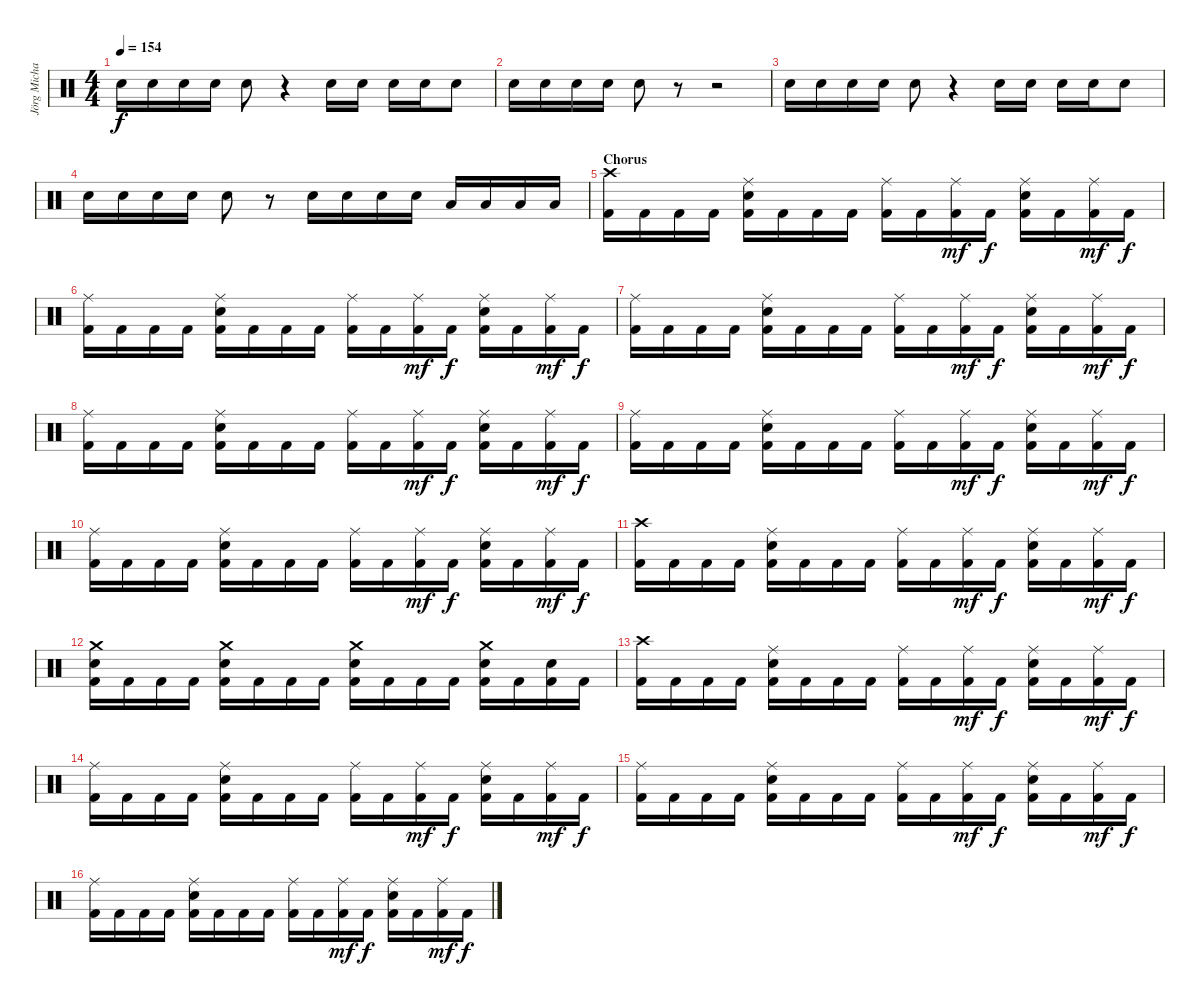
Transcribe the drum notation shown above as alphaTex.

\track ("Jörg Michael - Drums" "Jörg Micha") {instrument percussion}
\staff {score}
\articulation defaults
\ts (4 4)
\tempo 154
\clef neutral
\ks c "Electric Snare (hit)".16{dy f} "Electric Snare (hit)".16 "Electric Snare (hit)".16 "Electric Snare (hit)".16 "Electric Snare (hit)".8
r.4 "Electric Snare (hit)".16 "Electric Snare (hit)".16 "Electric Snare (hit)".16 "Electric Snare (hit)".16 "Electric Snare (hit)".8 |
"Electric Snare (hit)".16 "Electric Snare (hit)".16 "Electric Snare (hit)".16 "Electric Snare (hit)".16 "Electric Snare (hit)".8 r.8 r.2 |
"Electric Snare (hit)".16 "Electric Snare (hit)".16 "Electric Snare (hit)".16 "Electric Snare (hit)".16 "Electric Snare (hit)".8 r.4 "Electric Snare (hit)".16 "Electric Snare (hit)".16 "Electric Snare (hit)".16 "Electric Snare (hit)".16 "Electric Snare (hit)".8 |
"Electric Snare (hit)".16 "Electric Snare (hit)".16 "Electric Snare (hit)".16 "Electric Snare (hit)".16 "Electric Snare (hit)".8 r.8 "Electric Snare (hit)".16 "Electric Snare (hit)".16 "Electric Snare (hit)".16 "Electric Snare (hit)".16 "Low Tom (hit)".16 "Low Tom (hit)".16 "Low Tom (hit)".16 "Low Tom (hit)".16 |
\section ("" "Chorus")
("Crash high (hit)" "Kick (hit) 2").16 "Kick (hit) 2".16 "Kick (hit) 2".16 "Kick (hit) 2".16 ("Ride (middle)" "Electric Snare (hit)" "Kick (hit) 2").16 "Kick (hit) 2".16 "Kick (hit) 2".16 "Kick (hit) 2".16 ("Ride (middle)" "Kick (hit) 2").16 "Kick (hit) 2".16 ("Ride (middle)" "Kick (hit) 2").16{dy mf} "Kick (hit) 2".16{dy f} ("Ride (middle)" "Electric Snare (hit)" "Kick (hit) 2").16 "Kick (hit) 2".16 ("Ride (middle)" "Kick (hit) 2").16{dy mf} "Kick (hit) 2".16{dy f} |
("Ride (middle)" "Kick (hit) 2").16 "Kick (hit) 2".16 "Kick (hit) 2".16 "Kick (hit) 2".16 ("Ride (middle)" "Electric Snare (hit)" "Kick (hit) 2").16 "Kick (hit) 2".16 "Kick (hit) 2".16 "Kick (hit) 2".16 ("Ride (middle)" "Kick (hit) 2").16 "Kick (hit) 2".16 ("Ride (middle)" "Kick (hit) 2").16{dy mf} "Kick (hit) 2".16{dy f} ("Ride (middle)" "Electric Snare (hit)" "Kick (hit) 2").16 "Kick (hit) 2".16 ("Ride (middle)" "Kick (hit) 2").16{dy mf} "Kick (hit) 2".16{dy f} |
("Ride (middle)" "Kick (hit) 2").16 "Kick (hit) 2".16 "Kick (hit) 2".16 "Kick (hit) 2".16 ("Ride (middle)" "Electric Snare (hit)" "Kick (hit) 2").16 "Kick (hit) 2".16 "Kick (hit) 2".16 "Kick (hit) 2".16 ("Ride (middle)" "Kick (hit) 2").16 "Kick (hit) 2".16 ("Ride (middle)" "Kick (hit) 2").16{dy mf} "Kick (hit) 2".16{dy f} ("Ride (middle)" "Electric Snare (hit)" "Kick (hit) 2").16 "Kick (hit) 2".16 ("Ride (middle)" "Kick (hit) 2").16{dy mf} "Kick (hit) 2".16{dy f} |
("Ride (middle)" "Kick (hit) 2").16 "Kick (hit) 2".16 "Kick (hit) 2".16 "Kick (hit) 2".16 ("Ride (middle)" "Electric Snare (hit)" "Kick (hit) 2").16 "Kick (hit) 2".16 "Kick (hit) 2".16 "Kick (hit) 2".16 ("Ride (middle)" "Kick (hit) 2").16 "Kick (hit) 2".16 ("Ride (middle)" "Kick (hit) 2").16{dy mf} "Kick (hit) 2".16{dy f} ("Ride (middle)" "Electric Snare (hit)" "Kick (hit) 2").16 "Kick (hit) 2".16 ("Ride (middle)" "Kick (hit) 2").16{dy mf} "Kick (hit) 2".16{dy f} |
("Ride (middle)" "Kick (hit) 2").16 "Kick (hit) 2".16 "Kick (hit) 2".16 "Kick (hit) 2".16 ("Ride (middle)" "Electric Snare (hit)" "Kick (hit) 2").16 "Kick (hit) 2".16 "Kick (hit) 2".16 "Kick (hit) 2".16 ("Ride (middle)" "Kick (hit) 2").16 "Kick (hit) 2".16 ("Ride (middle)" "Kick (hit) 2").16{dy mf} "Kick (hit) 2".16{dy f} ("Ride (middle)" "Electric Snare (hit)" "Kick (hit) 2").16 "Kick (hit) 2".16 ("Ride (middle)" "Kick (hit) 2").16{dy mf} "Kick (hit) 2".16{dy f} |
("Ride (middle)" "Kick (hit) 2").16 "Kick (hit) 2".16 "Kick (hit) 2".16 "Kick (hit) 2".16 ("Ride (middle)" "Electric Snare (hit)" "Kick (hit) 2").16 "Kick (hit) 2".16 "Kick (hit) 2".16 "Kick (hit) 2".16 ("Ride (middle)" "Kick (hit) 2").16 "Kick (hit) 2".16 ("Ride (middle)" "Kick (hit) 2").16{dy mf} "Kick (hit) 2".16{dy f} ("Ride (middle)" "Electric Snare (hit)" "Kick (hit) 2").16 "Kick (hit) 2".16 ("Ride (middle)" "Kick (hit) 2").16{dy mf} "Kick (hit) 2".16{dy f} |
("Crash high (hit)" "Kick (hit) 2").16 "Kick (hit) 2".16 "Kick (hit) 2".16 "Kick (hit) 2".16 ("Ride (middle)" "Electric Snare (hit)" "Kick (hit) 2").16 "Kick (hit) 2".16 "Kick (hit) 2".16 "Kick (hit) 2".16 ("Ride (middle)" "Kick (hit) 2").16 "Kick (hit) 2".16 ("Ride (middle)" "Kick (hit) 2").16{dy mf} "Kick (hit) 2".16{dy f} ("Ride (middle)" "Electric Snare (hit)" "Kick (hit) 2").16 "Kick (hit) 2".16 ("Ride (middle)" "Kick (hit) 2").16{dy mf} "Kick (hit) 2".16{dy f} |
("Crash medium (hit)" "Electric Snare (hit)" "Kick (hit) 2").16 "Kick (hit) 2".16 "Kick (hit) 2".16 "Kick (hit) 2".16 ("Crash medium (hit)" "Electric Snare (hit)" "Kick (hit) 2").16 "Kick (hit) 2".16 "Kick (hit) 2".16 "Kick (hit) 2".16 ("Crash medium (hit)" "Electric Snare (hit)" "Kick (hit) 2").16 "Kick (hit) 2".16 "Kick (hit) 2".16 "Kick (hit) 2".16 ("Crash medium (hit)" "Electric Snare (hit)" "Kick (hit) 2").16 "Kick (hit) 2".16 ("Electric Snare (hit)" "Kick (hit) 2").16 "Kick (hit) 2".16 |
("Crash high (hit)" "Kick (hit) 2").16 "Kick (hit) 2".16 "Kick (hit) 2".16 "Kick (hit) 2".16 ("Ride (middle)" "Electric Snare (hit)" "Kick (hit) 2").16 "Kick (hit) 2".16 "Kick (hit) 2".16 "Kick (hit) 2".16 ("Ride (middle)" "Kick (hit) 2").16 "Kick (hit) 2".16 ("Ride (middle)" "Kick (hit) 2").16{dy mf} "Kick (hit) 2".16{dy f} ("Ride (middle)" "Electric Snare (hit)" "Kick (hit) 2").16 "Kick (hit) 2".16 ("Ride (middle)" "Kick (hit) 2").16{dy mf} "Kick (hit) 2".16{dy f} |
("Ride (middle)" "Kick (hit) 2").16 "Kick (hit) 2".16 "Kick (hit) 2".16 "Kick (hit) 2".16 ("Ride (middle)" "Electric Snare (hit)" "Kick (hit) 2").16 "Kick (hit) 2".16 "Kick (hit) 2".16 "Kick (hit) 2".16 ("Ride (middle)" "Kick (hit) 2").16 "Kick (hit) 2".16 ("Ride (middle)" "Kick (hit) 2").16{dy mf} "Kick (hit) 2".16{dy f} ("Ride (middle)" "Electric Snare (hit)" "Kick (hit) 2").16 "Kick (hit) 2".16 ("Ride (middle)" "Kick (hit) 2").16{dy mf} "Kick (hit) 2".16{dy f} |
("Ride (middle)" "Kick (hit) 2").16 "Kick (hit) 2".16 "Kick (hit) 2".16 "Kick (hit) 2".16 ("Ride (middle)" "Electric Snare (hit)" "Kick (hit) 2").16 "Kick (hit) 2".16 "Kick (hit) 2".16 "Kick (hit) 2".16 ("Ride (middle)" "Kick (hit) 2").16 "Kick (hit) 2".16 ("Ride (middle)" "Kick (hit) 2").16{dy mf} "Kick (hit) 2".16{dy f} ("Ride (middle)" "Electric Snare (hit)" "Kick (hit) 2").16 "Kick (hit) 2".16 ("Ride (middle)" "Kick (hit) 2").16{dy mf} "Kick (hit) 2".16{dy f} |
("Ride (middle)" "Kick (hit) 2").16 "Kick (hit) 2".16 "Kick (hit) 2".16 "Kick (hit) 2".16 ("Ride (middle)" "Electric Snare (hit)" "Kick (hit) 2").16 "Kick (hit) 2".16 "Kick (hit) 2".16 "Kick (hit) 2".16 ("Ride (middle)" "Kick (hit) 2").16 "Kick (hit) 2".16 ("Ride (middle)" "Kick (hit) 2").16{dy mf} "Kick (hit) 2".16{dy f} ("Ride (middle)" "Electric Snare (hit)" "Kick (hit) 2").16 "Kick (hit) 2".16 ("Ride (middle)" "Kick (hit) 2").16{dy mf} "Kick (hit) 2".16{dy f}
